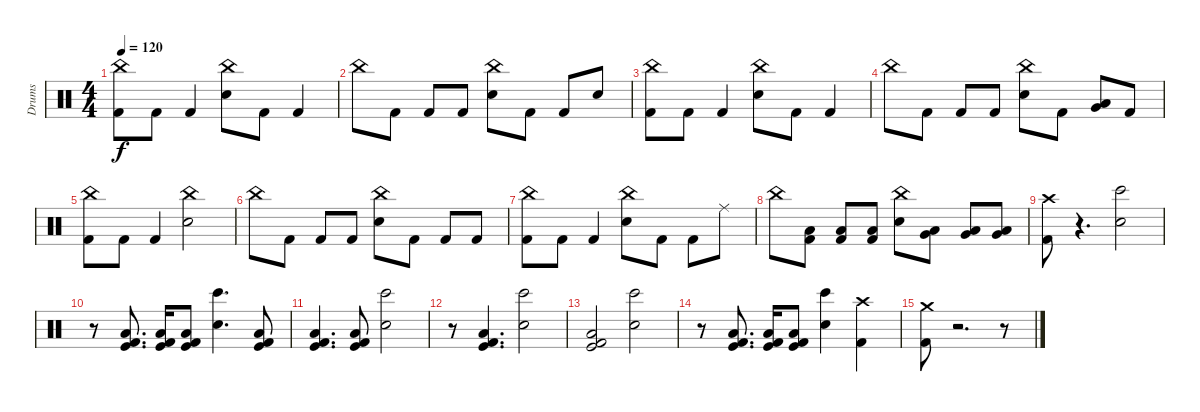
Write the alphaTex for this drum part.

\track ("Drums" "Drums") {instrument percussion}
\staff {score}
\articulation defaults
\ts (4 4)
\tempo 120
\clef neutral
\ks c
("China (hit)" "Kick (hit) 2").8{dy f} "Kick (hit) 2".8 "Kick (hit) 2".4 ("China (hit)" "Electric Snare (hit)").8 "Kick (hit) 2".8 "Kick (hit) 2".4 |
"China (hit)".8 "Kick (hit) 2".8 "Kick (hit) 2".8 "Kick (hit) 2".8 ("China (hit)" "Electric Snare (hit)").8 "Kick (hit) 2".8 "Kick (hit) 2".8 "Electric Snare (hit)".8 |
("China (hit)" "Kick (hit) 2").8 "Kick (hit) 2".8 "Kick (hit) 2".4 ("China (hit)" "Electric Snare (hit)").8 "Kick (hit) 2".8 "Kick (hit) 2".4 |
"China (hit)".8 "Kick (hit) 2".8 "Kick (hit) 2".8 "Kick (hit) 2".8 ("China (hit)" "Electric Snare (hit)").8 "Kick (hit) 2".8 ("Very Low Tom (hit)" "Low Floor Tom (hit)").8 "Kick (hit) 2".8 |
("China (hit)" "Kick (hit) 2").8 "Kick (hit) 2".8 "Kick (hit) 2".4 ("China (hit)" "Electric Snare (hit)").2 |
"China (hit)".8 "Kick (hit) 2".8 "Kick (hit) 2".8 "Kick (hit) 2".8 ("China (hit)" "Electric Snare (hit)").8 "Kick (hit) 2".8 "Kick (hit) 2".8 "Kick (hit) 2".8 |
("China (hit)" "Kick (hit) 2").8 "Kick (hit) 2".8 "Kick (hit) 2".4 ("China (hit)" "Electric Snare (hit)").8 "Kick (hit) 2".8 "Kick (hit) 2".8 "Ride (middle)".8 |
"China (hit)".8 ("Low Floor Tom (hit)" "Kick (hit) 2").8 ("Low Floor Tom (hit)" "Kick (hit) 2").8 ("Low Floor Tom (hit)" "Kick (hit) 2").8 ("China (hit)" "Electric Snare (hit)").8 ("Very Low Tom (hit)" "Low Floor Tom (hit)").8 ("Very Low Tom (hit)" "Low Floor Tom (hit)").8 ("Very Low Tom (hit)" "Low Floor Tom (hit)").8 |
("Crash high (hit)" "Kick (hit) 2").8 r.4{d volume 0} ("Bongo High (hit)" "Snare (hit) 2").2{volume 16} |
r.8 ("Low Floor Tom (hit)" "Kick (hit) 2" "Kick (hit)").8{d} ("Low Floor Tom (hit)" "Kick (hit) 2" "Kick (hit)").16 ("Low Floor Tom (hit)" "Kick (hit) 2" "Kick (hit)").8 ("Bongo High (hit)" "Snare (hit) 2").4{d} ("Low Floor Tom (hit)" "Kick (hit) 2" "Kick (hit)").8 |
("Low Floor Tom (hit)" "Kick (hit) 2" "Kick (hit)").4{d} ("Low Floor Tom (hit)" "Kick (hit) 2" "Kick (hit)").8 ("Bongo High (hit)" "Snare (hit) 2").2 |
r.8 ("Low Floor Tom (hit)" "Kick (hit) 2" "Kick (hit)").4{d} ("Bongo High (hit)" "Snare (hit) 2").2 |
("Low Floor Tom (hit)" "Kick (hit) 2" "Kick (hit)").2 ("Bongo High (hit)" "Snare (hit) 2").2 |
r.8 ("Low Floor Tom (hit)" "Kick (hit) 2" "Kick (hit)").8{d} ("Low Floor Tom (hit)" "Kick (hit) 2" "Kick (hit)").16 ("Low Floor Tom (hit)" "Kick (hit) 2" "Kick (hit)").8 ("Bongo High (hit)" "Snare (hit) 2").4 ("Crash high (hit)" "Kick (hit) 2").4 |
("Crash medium (hit)" "Kick (hit) 2").8 r.2{d volume 0} r.8
